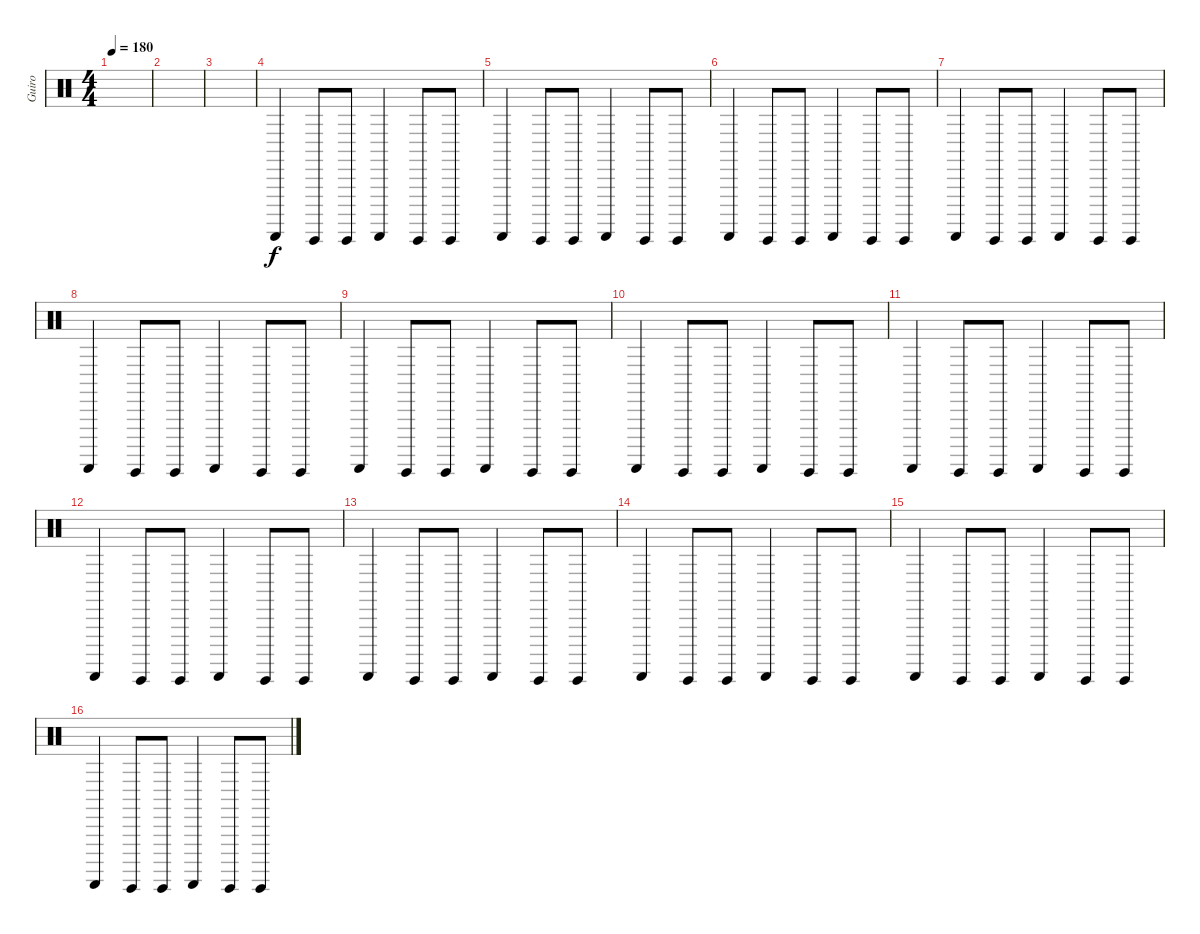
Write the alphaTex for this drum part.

\track ("Guiro" "Guiro") {instrument percussion}
\staff {score}
\articulation defaults
\ts (4 4)
\tempo 180
\clef neutral
\ks c
|
|
|
"Guiro (scrap-return)".4 "Guiro (hit)".8 "Guiro (hit)".8 "Guiro (scrap-return)".4 "Guiro (hit)".8 "Guiro (hit)".8 |
"Guiro (scrap-return)".4 "Guiro (hit)".8 "Guiro (hit)".8 "Guiro (scrap-return)".4 "Guiro (hit)".8 "Guiro (hit)".8 |
"Guiro (scrap-return)".4 "Guiro (hit)".8 "Guiro (hit)".8 "Guiro (scrap-return)".4 "Guiro (hit)".8 "Guiro (hit)".8 |
"Guiro (scrap-return)".4 "Guiro (hit)".8 "Guiro (hit)".8 "Guiro (scrap-return)".4 "Guiro (hit)".8 "Guiro (hit)".8 |
"Guiro (scrap-return)".4 "Guiro (hit)".8 "Guiro (hit)".8 "Guiro (scrap-return)".4 "Guiro (hit)".8 "Guiro (hit)".8 |
"Guiro (scrap-return)".4 "Guiro (hit)".8 "Guiro (hit)".8 "Guiro (scrap-return)".4 "Guiro (hit)".8 "Guiro (hit)".8 |
"Guiro (scrap-return)".4 "Guiro (hit)".8 "Guiro (hit)".8 "Guiro (scrap-return)".4 "Guiro (hit)".8 "Guiro (hit)".8 |
"Guiro (scrap-return)".4 "Guiro (hit)".8 "Guiro (hit)".8 "Guiro (scrap-return)".4 "Guiro (hit)".8 "Guiro (hit)".8 |
"Guiro (scrap-return)".4 "Guiro (hit)".8 "Guiro (hit)".8 "Guiro (scrap-return)".4 "Guiro (hit)".8 "Guiro (hit)".8 |
"Guiro (scrap-return)".4 "Guiro (hit)".8 "Guiro (hit)".8 "Guiro (scrap-return)".4 "Guiro (hit)".8 "Guiro (hit)".8 |
"Guiro (scrap-return)".4 "Guiro (hit)".8 "Guiro (hit)".8 "Guiro (scrap-return)".4 "Guiro (hit)".8 "Guiro (hit)".8 |
"Guiro (scrap-return)".4 "Guiro (hit)".8 "Guiro (hit)".8 "Guiro (scrap-return)".4 "Guiro (hit)".8 "Guiro (hit)".8 |
"Guiro (scrap-return)".4 "Guiro (hit)".8 "Guiro (hit)".8 "Guiro (scrap-return)".4 "Guiro (hit)".8 "Guiro (hit)".8
